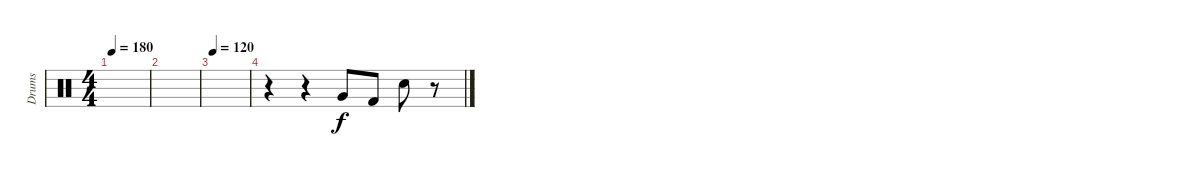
\track ("Drums" "Drums") {instrument percussion}
\staff {score}
\articulation defaults
\ts (4 4)
\tempo 180
\clef neutral
\ks c
|
|
\tempo 120
|
r.4 r.4 "Very Low Tom (hit)".8 "Kick (hit) 2".8 "Electric Snare (hit)".8 r.8
